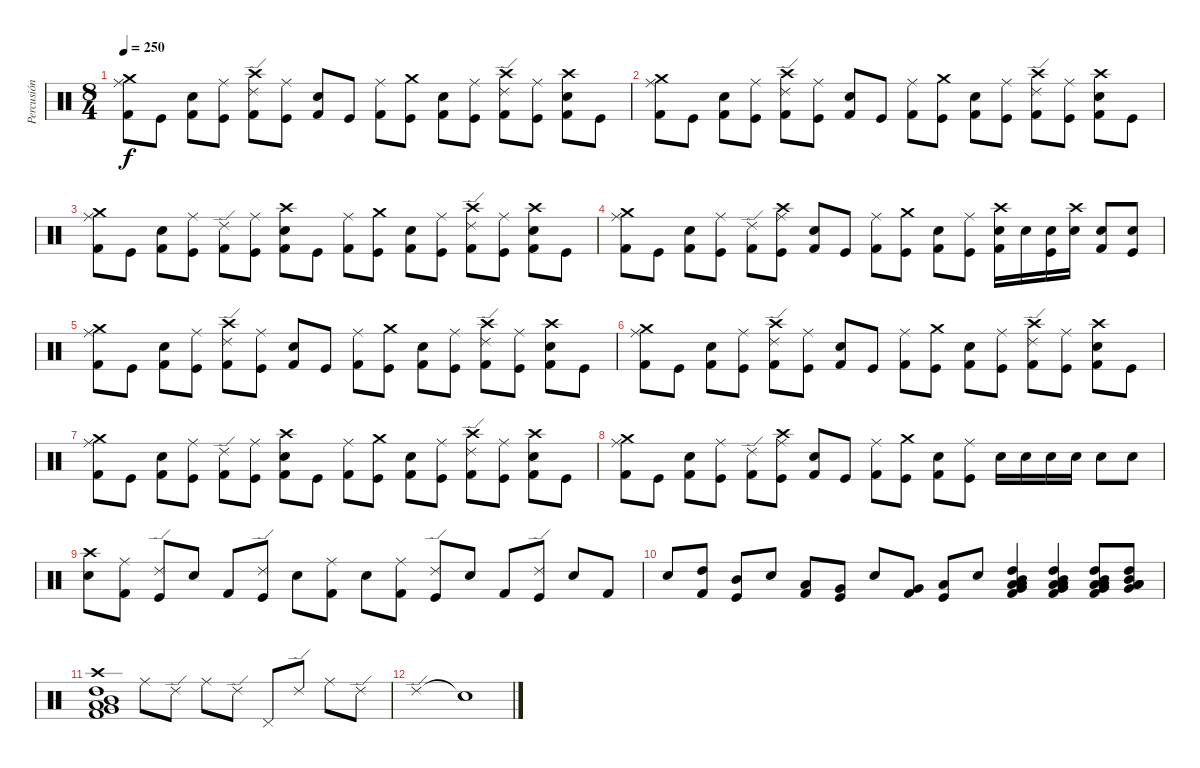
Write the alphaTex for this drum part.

\track ("Percusión" "Percusión") {instrument percussion}
\staff {score}
\articulation defaults
\ts (8 4)
\tempo 250
\clef neutral
\ks c
("Crash medium (hit)" "Ride (middle)" "Kick (hit) 2").8{dy f} "Kick (hit)".8 ("Electric Snare (hit)" "Kick (hit) 2").8 ("Ride (middle)" "Kick (hit)").8 ("Crash high (hit)" "Ride (edge) 2" "Kick (hit) 2").8 ("Ride (middle)" "Kick (hit)").8 ("Electric Snare (hit)" "Kick (hit) 2").8 "Kick (hit)".8 ("Ride (middle)" "Kick (hit) 2").8 ("Crash medium (hit)" "Kick (hit)").8 ("Electric Snare (hit)" "Kick (hit) 2").8 ("Ride (middle)" "Kick (hit)").8 ("Crash high (hit)" "Ride (edge) 2" "Kick (hit) 2").8 ("Ride (middle)" "Kick (hit)").8 ("Crash high (hit)" "Electric Snare (hit)" "Kick (hit) 2").8 "Kick (hit)".8 |
("Crash medium (hit)" "Ride (middle)" "Kick (hit) 2").8 "Kick (hit)".8 ("Electric Snare (hit)" "Kick (hit) 2").8 ("Ride (middle)" "Kick (hit)").8 ("Crash high (hit)" "Ride (edge) 2" "Kick (hit) 2").8 ("Ride (middle)" "Kick (hit)").8 ("Electric Snare (hit)" "Kick (hit) 2").8 "Kick (hit)".8 ("Ride (middle)" "Kick (hit) 2").8 ("Crash medium (hit)" "Kick (hit)").8 ("Electric Snare (hit)" "Kick (hit) 2").8 ("Ride (middle)" "Kick (hit)").8 ("Crash high (hit)" "Ride (edge) 2" "Kick (hit) 2").8 ("Ride (middle)" "Kick (hit)").8 ("Crash high (hit)" "Electric Snare (hit)" "Kick (hit) 2").8 "Kick (hit)".8 |
("Crash medium (hit)" "Ride (middle)" "Kick (hit) 2").8 "Kick (hit)".8 ("Electric Snare (hit)" "Kick (hit) 2").8 ("Ride (middle)" "Kick (hit)").8 ("Ride (edge) 2" "Kick (hit) 2").8 ("Ride (middle)" "Kick (hit)").8 ("Crash high (hit)" "Electric Snare (hit)" "Kick (hit) 2").8 "Kick (hit)".8 ("Ride (middle)" "Kick (hit) 2").8 ("Crash medium (hit)" "Kick (hit)").8 ("Electric Snare (hit)" "Kick (hit) 2").8 ("Ride (middle)" "Kick (hit)").8 ("Crash high (hit)" "Ride (edge) 2" "Kick (hit) 2").8 ("Ride (middle)" "Kick (hit)").8 ("Crash high (hit)" "Electric Snare (hit)" "Kick (hit) 2").8 "Kick (hit)".8 |
("Crash medium (hit)" "Ride (middle)" "Kick (hit) 2").8 "Kick (hit)".8 ("Electric Snare (hit)" "Kick (hit) 2").8 ("Ride (middle)" "Kick (hit)").8 ("Ride (edge) 2" "Kick (hit) 2").8 ("Crash high (hit)" "Ride (middle)" "Kick (hit)").8 ("Electric Snare (hit)" "Kick (hit) 2").8 "Kick (hit)".8 ("Ride (middle)" "Kick (hit) 2").8 ("Crash medium (hit)" "Kick (hit)").8 ("Electric Snare (hit)" "Kick (hit) 2").8 ("Ride (middle)" "Kick (hit)").8 ("Crash high (hit)" "Electric Snare (hit)" "Kick (hit) 2").16 "Electric Snare (hit)".16 ("Electric Snare (hit)" "Kick (hit)").16 ("Crash high (hit)" "Electric Snare (hit)").16 ("Electric Snare (hit)" "Kick (hit) 2").8 ("Electric Snare (hit)" "Kick (hit)").8 |
("Crash medium (hit)" "Ride (middle)" "Kick (hit) 2").8 "Kick (hit)".8 ("Electric Snare (hit)" "Kick (hit) 2").8 ("Ride (middle)" "Kick (hit)").8 ("Crash high (hit)" "Ride (edge) 2" "Kick (hit) 2").8 ("Ride (middle)" "Kick (hit)").8 ("Electric Snare (hit)" "Kick (hit) 2").8 "Kick (hit)".8 ("Ride (middle)" "Kick (hit) 2").8 ("Crash medium (hit)" "Kick (hit)").8 ("Electric Snare (hit)" "Kick (hit) 2").8 ("Ride (middle)" "Kick (hit)").8 ("Crash high (hit)" "Ride (edge) 2" "Kick (hit) 2").8 ("Ride (middle)" "Kick (hit)").8 ("Crash high (hit)" "Electric Snare (hit)" "Kick (hit) 2").8 "Kick (hit)".8 |
("Crash medium (hit)" "Ride (middle)" "Kick (hit) 2").8 "Kick (hit)".8 ("Electric Snare (hit)" "Kick (hit) 2").8 ("Ride (middle)" "Kick (hit)").8 ("Crash high (hit)" "Ride (edge) 2" "Kick (hit) 2").8 ("Ride (middle)" "Kick (hit)").8 ("Electric Snare (hit)" "Kick (hit) 2").8 "Kick (hit)".8 ("Ride (middle)" "Kick (hit) 2").8 ("Crash medium (hit)" "Kick (hit)").8 ("Electric Snare (hit)" "Kick (hit) 2").8 ("Ride (middle)" "Kick (hit)").8 ("Crash high (hit)" "Ride (edge) 2" "Kick (hit) 2").8 ("Ride (middle)" "Kick (hit)").8 ("Crash high (hit)" "Electric Snare (hit)" "Kick (hit) 2").8 "Kick (hit)".8 |
("Crash medium (hit)" "Ride (middle)" "Kick (hit) 2").8 "Kick (hit)".8 ("Electric Snare (hit)" "Kick (hit) 2").8 ("Ride (middle)" "Kick (hit)").8 ("Ride (edge) 2" "Kick (hit) 2").8 ("Ride (middle)" "Kick (hit)").8 ("Crash high (hit)" "Electric Snare (hit)" "Kick (hit) 2").8 "Kick (hit)".8 ("Ride (middle)" "Kick (hit) 2").8 ("Crash medium (hit)" "Kick (hit)").8 ("Electric Snare (hit)" "Kick (hit) 2").8 ("Ride (middle)" "Kick (hit)").8 ("Crash high (hit)" "Ride (edge) 2" "Kick (hit) 2").8 ("Ride (middle)" "Kick (hit)").8 ("Crash high (hit)" "Electric Snare (hit)" "Kick (hit) 2").8 "Kick (hit)".8 |
("Crash medium (hit)" "Ride (middle)" "Kick (hit) 2").8 "Kick (hit)".8 ("Electric Snare (hit)" "Kick (hit) 2").8 ("Ride (middle)" "Kick (hit)").8 ("Ride (edge) 2" "Kick (hit) 2").8 ("Crash high (hit)" "Ride (middle)" "Kick (hit)").8 ("Electric Snare (hit)" "Kick (hit) 2").8 "Kick (hit)".8 ("Ride (middle)" "Kick (hit) 2").8 ("Crash medium (hit)" "Kick (hit)").8 ("Electric Snare (hit)" "Kick (hit) 2").8 ("Ride (middle)" "Kick (hit)").8 "Electric Snare (hit)".16 "Electric Snare (hit)".16 "Electric Snare (hit)".16 "Electric Snare (hit)".16 "Electric Snare (hit)".8 "Electric Snare (hit)".8 |
("Crash high (hit)" "Electric Snare (hit)").8 ("Ride (middle)" "Kick (hit) 2").8 ("Ride (edge) 2" "Kick (hit)").8 "Electric Snare (hit)".8 "Kick (hit) 2".8 ("Ride (edge) 2" "Kick (hit)").8 "Electric Snare (hit)".8 ("Ride (middle)" "Kick (hit) 2").8 "Electric Snare (hit)".8 ("Ride (middle)" "Kick (hit) 2").8 ("Ride (edge) 2" "Kick (hit)").8 "Electric Snare (hit)".8 "Kick (hit) 2".8 ("Ride (edge) 2" "Kick (hit)").8 "Electric Snare (hit)".8 "Kick (hit) 2".8 |
"Electric Snare (hit)".8 ("High Tom (hit)" "Kick (hit) 2").8 ("Mid Tom (hit)" "Kick (hit)").8 "Electric Snare (hit)".8 ("Low Tom (hit)" "Kick (hit) 2").8 ("Very Low Tom (hit)" "Kick (hit)").8 "Electric Snare (hit)".8 ("Very Low Tom (hit)" "Kick (hit) 2").8 ("Low Floor Tom (hit)" "Kick (hit)").8 "Electric Snare (hit)".8 ("Low Floor Tom (hit)" "Very Low Tom (hit)" "Low Tom (hit)" "Mid Tom (hit)" "High Tom (hit)" "Kick (hit) 2").4 ("Low Floor Tom (hit)" "Very Low Tom (hit)" "Low Tom (hit)" "Mid Tom (hit)" "High Tom (hit)" "Kick (hit) 2").4 ("Low Floor Tom (hit)" "Very Low Tom (hit)" "Low Tom (hit)" "Mid Tom (hit)" "High Tom (hit)" "Kick (hit) 2").8 ("Low Floor Tom (hit)" "Very Low Tom (hit)" "Low Tom (hit)" "Mid Tom (hit)" "High Tom (hit)").8 |
("Crash high (hit)" "Very Low Tom (hit)" "Low Tom (hit)" "Mid Tom (hit)" "High Tom (hit)" "Kick (hit) 2").1 "Ride (middle)".8 "Ride (edge) 2".8 "Ride (middle)".8 "Ride (edge) 2".8 "Pedal Hi-Hat (hit)".8 "Ride (edge) 2".8 "Ride (middle)".8 "Ride (edge) 2".8 |
"Ride (edge) 2".1{volume 0} "Snare (hit)"{t}.1
